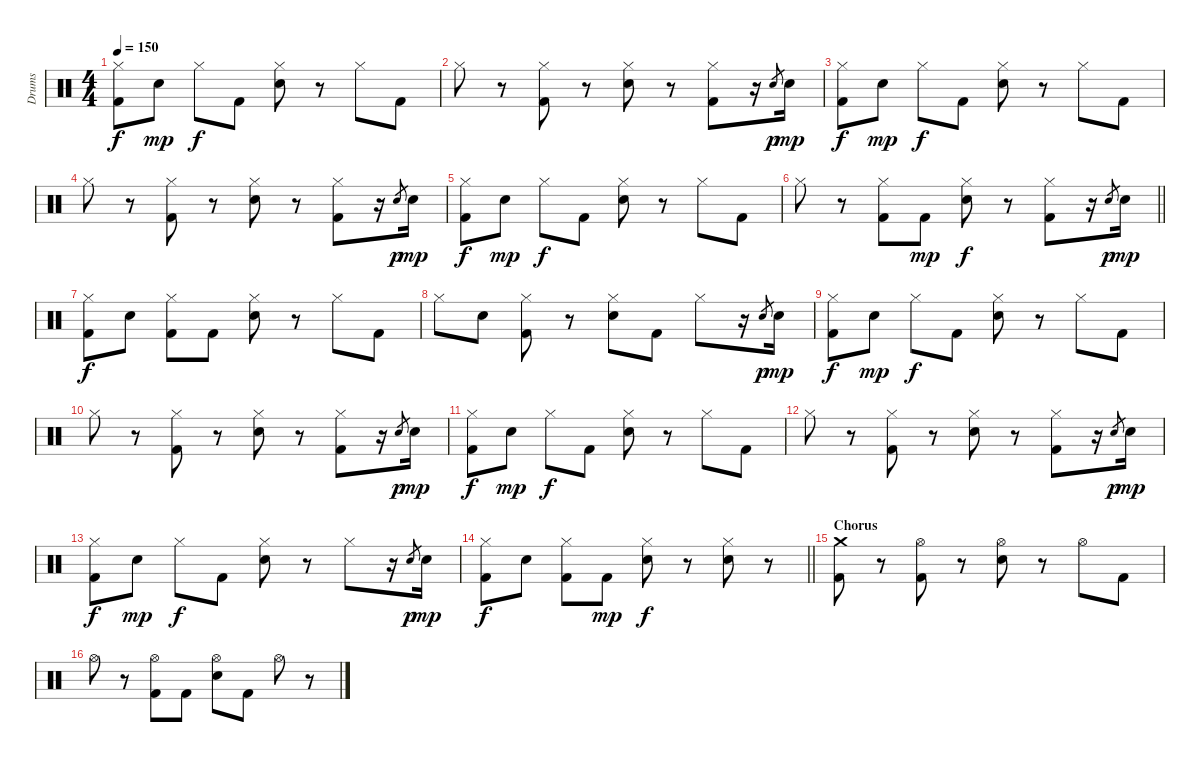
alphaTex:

\track ("Drums" "Drums") {instrument percussion}
\staff {score}
\articulation defaults
\ts (4 4)
\tempo 150
\clef neutral
\ks c
("Hi-Hat (closed)" "Kick (hit) 2").8{dy f} "Snare (hit) 2".8{dy mp} "Hi-Hat (closed)".8{dy f} "Kick (hit) 2".8 ("Hi-Hat (closed)" "Snare (hit) 2").8 r.8 "Hi-Hat (closed)".8 "Kick (hit) 2".8 |
"Hi-Hat (closed)".8 r.8 ("Hi-Hat (closed)" "Kick (hit) 2").8 r.8 ("Hi-Hat (closed)" "Snare (hit) 2").8 r.8 ("Hi-Hat (closed)" "Kick (hit) 2").8 r.16 "Snare (hit)".8{gr dy p} "Snare (hit) 2".16{dy mp} |
("Hi-Hat (closed)" "Kick (hit) 2").8{dy f} "Snare (hit) 2".8{dy mp} "Hi-Hat (closed)".8{dy f} "Kick (hit) 2".8 ("Hi-Hat (closed)" "Snare (hit) 2").8 r.8 "Hi-Hat (closed)".8 "Kick (hit) 2".8 |
"Hi-Hat (closed)".8 r.8 ("Hi-Hat (closed)" "Kick (hit) 2").8 r.8 ("Hi-Hat (closed)" "Snare (hit) 2").8 r.8 ("Hi-Hat (closed)" "Kick (hit) 2").8 r.16 "Snare (hit)".8{gr dy p} "Snare (hit) 2".16{dy mp} |
("Hi-Hat (closed)" "Kick (hit) 2").8{dy f} "Snare (hit) 2".8{dy mp} "Hi-Hat (closed)".8{dy f} "Kick (hit) 2".8 ("Hi-Hat (closed)" "Snare (hit) 2").8 r.8 "Hi-Hat (closed)".8 "Kick (hit) 2".8 |
\barLineRight lightlight "Hi-Hat (closed)".8
r.8 ("Hi-Hat (closed)" "Kick (hit) 2").8 "Kick (hit) 2".8{dy mp} ("Hi-Hat (closed)" "Snare (hit) 2").8{dy f} r.8 ("Hi-Hat (closed)" "Kick (hit) 2").8 r.16 "Snare (hit)".8{gr dy p} "Snare (hit) 2".16{dy mp} |
("Hi-Hat (closed)" "Kick (hit) 2").8{dy f} "Snare (hit) 2".8 ("Hi-Hat (closed)" "Kick (hit) 2").8 "Kick (hit) 2".8 ("Hi-Hat (closed)" "Snare (hit) 2").8 r.8 "Hi-Hat (closed)".8 "Kick (hit) 2".8 |
"Hi-Hat (closed)".8 "Snare (hit) 2".8 ("Hi-Hat (closed)" "Kick (hit) 2").8 r.8 ("Hi-Hat (closed)" "Snare (hit) 2").8 "Kick (hit) 2".8 "Hi-Hat (closed)".8 r.16 "Snare (hit)".8{gr dy p} "Snare (hit) 2".16{dy mp} |
("Hi-Hat (closed)" "Kick (hit) 2").8{dy f} "Snare (hit) 2".8{dy mp} "Hi-Hat (closed)".8{dy f} "Kick (hit) 2".8 ("Hi-Hat (closed)" "Snare (hit) 2").8 r.8 "Hi-Hat (closed)".8 "Kick (hit) 2".8 |
"Hi-Hat (closed)".8 r.8 ("Hi-Hat (closed)" "Kick (hit) 2").8 r.8 ("Hi-Hat (closed)" "Snare (hit) 2").8 r.8 ("Hi-Hat (closed)" "Kick (hit) 2").8 r.16 "Snare (hit)".8{gr dy p} "Snare (hit) 2".16{dy mp} |
("Hi-Hat (closed)" "Kick (hit) 2").8{dy f} "Snare (hit) 2".8{dy mp} "Hi-Hat (closed)".8{dy f} "Kick (hit) 2".8 ("Hi-Hat (closed)" "Snare (hit) 2").8 r.8 "Hi-Hat (closed)".8 "Kick (hit) 2".8 |
"Hi-Hat (closed)".8 r.8 ("Hi-Hat (closed)" "Kick (hit) 2").8 r.8 ("Hi-Hat (closed)" "Snare (hit) 2").8 r.8 ("Hi-Hat (closed)" "Kick (hit) 2").8 r.16 "Snare (hit)".8{gr dy p} "Snare (hit) 2".16{dy mp} |
("Hi-Hat (closed)" "Kick (hit) 2").8{dy f} "Snare (hit) 2".8{dy mp} "Hi-Hat (closed)".8{dy f} "Kick (hit) 2".8 ("Hi-Hat (closed)" "Snare (hit) 2").8 r.8 "Hi-Hat (closed)".8 r.16 "Snare (hit)".8{gr dy p} "Snare (hit) 2".16{dy mp} |
\barLineRight lightlight
("Hi-Hat (closed)" "Kick (hit) 2").8{dy f} "Snare (hit) 2".8 ("Hi-Hat (closed)" "Kick (hit) 2").8 "Kick (hit) 2".8{dy mp} ("Hi-Hat (closed)" "Snare (hit) 2").8{dy f} r.8 ("Hi-Hat (closed)" "Snare (hit) 2").8 r.8 |
\section ("" "Chorus")
("Crash medium (hit)" "Kick (hit) 2").8 r.8 ("Hi-Hat (open)" "Kick (hit) 2").8 r.8 ("Hi-Hat (open)" "Snare (hit) 2").8 r.8 "Hi-Hat (open)".8 "Kick (hit) 2".8 |
"Hi-Hat (open)".8 r.8 ("Hi-Hat (open)" "Kick (hit) 2").8 "Kick (hit) 2".8 ("Hi-Hat (open)" "Snare (hit) 2").8 "Kick (hit) 2".8 "Hi-Hat (open)".8 r.8
